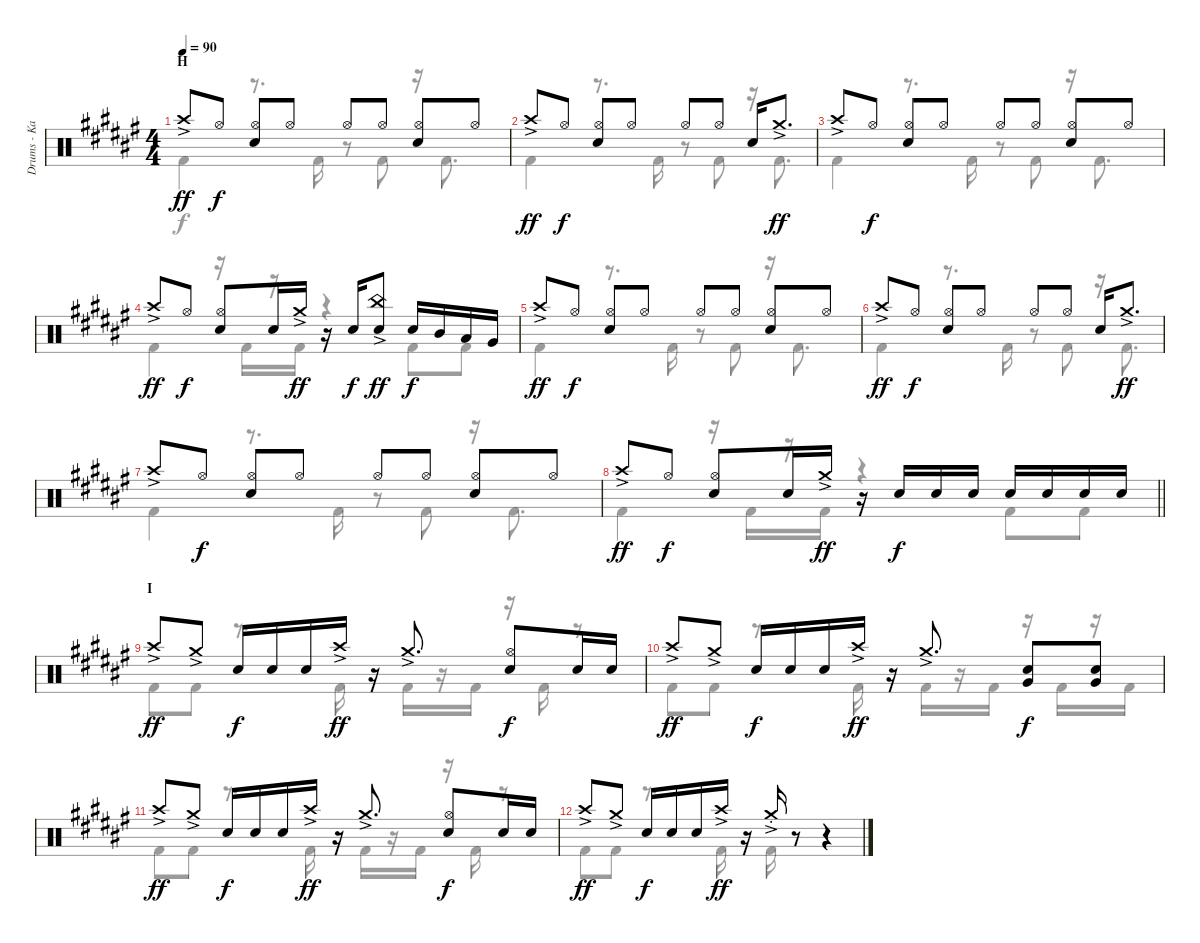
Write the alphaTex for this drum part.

\track ("Drums - Kai" "Drums - Ka") {instrument percussion}
\staff {score}
\articulation defaults
\voice
\ts (4 4)
\section ("" "H")
\tempo 90
\clef neutral
\ks f# "Crash high (hit)"{ac}.8{dy ff} "Hi-Hat (open)".8{dy f}
("Hi-Hat (open)" "Snare (hit) 2").8 "Hi-Hat (open)".8 "Hi-Hat (open)".8 "Hi-Hat (open)".8 ("Hi-Hat (open)" "Snare (hit) 2").8 "Hi-Hat (open)".8 |
"Crash high (hit)"{ac}.8{dy ff} "Hi-Hat (open)".8{dy f} ("Hi-Hat (open)" "Snare (hit) 2").8 "Hi-Hat (open)".8 "Hi-Hat (open)".8 "Hi-Hat (open)".8 "Snare (hit) 2".16 "Crash medium (hit)"{ac}.8{d dy ff} |
"Crash high (hit)"{ac}.8 "Hi-Hat (open)".8{dy f} ("Hi-Hat (open)" "Snare (hit) 2").8 "Hi-Hat (open)".8 "Hi-Hat (open)".8 "Hi-Hat (open)".8 ("Hi-Hat (open)" "Snare (hit) 2").8 "Hi-Hat (open)".8 |
"Crash high (hit)"{ac}.8{dy ff} "Hi-Hat (open)".8{dy f} ("Hi-Hat (open)" "Snare (hit) 2").8 "Snare (hit) 2".16 "Crash medium (hit)"{ac}.16{dy ff} r.16 "Snare (hit) 2".16{dy f} ("China (hit)"{ac} "Snare (hit) 2").8{dy ff} "Snare (hit) 2".16{dy f} "Mid Tom (hit)".16 "Low Tom (hit)".16 "Very Low Tom (hit)".16 |
"Crash high (hit)"{ac}.8{dy ff} "Hi-Hat (open)".8{dy f} ("Hi-Hat (open)" "Snare (hit) 2").8 "Hi-Hat (open)".8 "Hi-Hat (open)".8 "Hi-Hat (open)".8 ("Hi-Hat (open)" "Snare (hit) 2").8 "Hi-Hat (open)".8 |
"Crash high (hit)"{ac}.8{dy ff} "Hi-Hat (open)".8{dy f} ("Hi-Hat (open)" "Snare (hit) 2").8 "Hi-Hat (open)".8 "Hi-Hat (open)".8 "Hi-Hat (open)".8 "Snare (hit) 2".16 "Crash medium (hit)"{ac}.8{d dy ff} |
"Crash high (hit)"{ac}.8 "Hi-Hat (open)".8{dy f} ("Hi-Hat (open)" "Snare (hit) 2").8 "Hi-Hat (open)".8 "Hi-Hat (open)".8 "Hi-Hat (open)".8 ("Hi-Hat (open)" "Snare (hit) 2").8 "Hi-Hat (open)".8 |
\barLineRight lightlight "Crash high (hit)"{ac}.8{dy ff} "Hi-Hat (open)".8{dy f}
("Hi-Hat (open)" "Snare (hit) 2").8 "Snare (hit) 2".16 "Crash medium (hit)"{ac}.16{dy ff} r.16 "Snare (hit) 2".16{dy f} "Snare (hit) 2".16 "Snare (hit) 2".16 "Snare (hit) 2".16 "Snare (hit) 2".16 "Snare (hit) 2".16 "Snare (hit) 2".16 |
\section ("" "I")
"Crash high (hit)"{ac}.8{dy ff} "Crash medium (hit)"{ac}.8 "Snare (hit) 2".16{dy f} "Snare (hit) 2".16 "Snare (hit) 2".16 "Crash high (hit)"{ac}.16{dy ff} r.16 "Crash medium (hit)"{ac}.8{d} ("Hi-Hat (open)" "Snare (hit) 2").8{dy f} "Snare (hit) 2".16 "Snare (hit) 2".16 |
"Crash high (hit)"{ac}.8{dy ff} "Crash medium (hit)"{ac}.8 "Snare (hit) 2".16{dy f} "Snare (hit) 2".16 "Snare (hit) 2".16 "Crash high (hit)"{ac}.16{dy ff} r.16 "Crash medium (hit)"{ac}.8{d} ("Very Low Tom (hit)" "Snare (hit) 2").8{dy f} ("Very Low Tom (hit)" "Snare (hit) 2").8 |
"Crash high (hit)"{ac}.8{dy ff} "Crash medium (hit)"{ac}.8 "Snare (hit) 2".16{dy f} "Snare (hit) 2".16 "Snare (hit) 2".16 "Crash high (hit)"{ac}.16{dy ff} r.16 "Crash medium (hit)"{ac}.8{d} ("Hi-Hat (open)" "Snare (hit) 2").8{dy f} "Snare (hit) 2".16 "Snare (hit) 2".16 |
"Crash high (hit)"{ac}.8{dy ff} "Crash medium (hit)"{ac}.8 "Snare (hit) 2".16{dy f} "Snare (hit) 2".16 "Snare (hit) 2".16 "Crash high (hit)"{ac}.16{dy ff} r.16 "Crash medium (hit)"{ac st}.16 r.8 r.4
\voice
\clef neutral
\ottava regular
\simile none
\ks f# "Kick (hit) 2".4{dy f}
r.8{d} "Kick (hit) 2".16 r.8 "Kick (hit) 2".8 r.16 "Kick (hit) 2".8{d} |
"Kick (hit) 2".4 r.8{d} "Kick (hit) 2".16 r.8 "Kick (hit) 2".8 r.16 "Kick (hit) 2".8{d} |
"Kick (hit) 2".4 r.8{d} "Kick (hit) 2".16 r.8 "Kick (hit) 2".8 r.16 "Kick (hit) 2".8{d} |
"Kick (hit) 2".4 r.16 "Kick (hit) 2".16 r.16 "Kick (hit) 2".16 r.4 "Kick (hit) 2".8 "Kick (hit) 2".8 |
"Kick (hit) 2".4 r.8{d} "Kick (hit) 2".16 r.8 "Kick (hit) 2".8 r.16 "Kick (hit) 2".8{d} |
"Kick (hit) 2".4 r.8{d} "Kick (hit) 2".16 r.8 "Kick (hit) 2".8 r.16 "Kick (hit) 2".8{d} |
"Kick (hit) 2".4 r.8{d} "Kick (hit) 2".16 r.8 "Kick (hit) 2".8 r.16 "Kick (hit) 2".8{d} |
\barLineRight lightlight "Kick (hit) 2".4
r.16 "Kick (hit) 2".16 r.16 "Kick (hit) 2".16 r.4 "Kick (hit) 2".8 "Kick (hit) 2".8 |
"Kick (hit) 2".8 "Kick (hit) 2".8 r.8{d} "Kick (hit) 2".16 r.16 "Kick (hit) 2".16 r.16 "Kick (hit) 2".16 r.16 "Kick (hit) 2".16 r.8 |
"Kick (hit) 2".8 "Kick (hit) 2".8 r.8{d} "Kick (hit) 2".16 r.16 "Kick (hit) 2".16 r.16 "Kick (hit) 2".16 r.16 "Kick (hit) 2".16 r.16 "Kick (hit) 2".16 |
"Kick (hit) 2".8 "Kick (hit) 2".8 r.8{d} "Kick (hit) 2".16 r.16 "Kick (hit) 2".16 r.16 "Kick (hit) 2".16 r.16 "Kick (hit) 2".16 r.8 |
"Kick (hit) 2".8 "Kick (hit) 2".8 r.8{d} "Kick (hit) 2".16 r.16 "Kick (hit) 2".16 r.8 r.4
